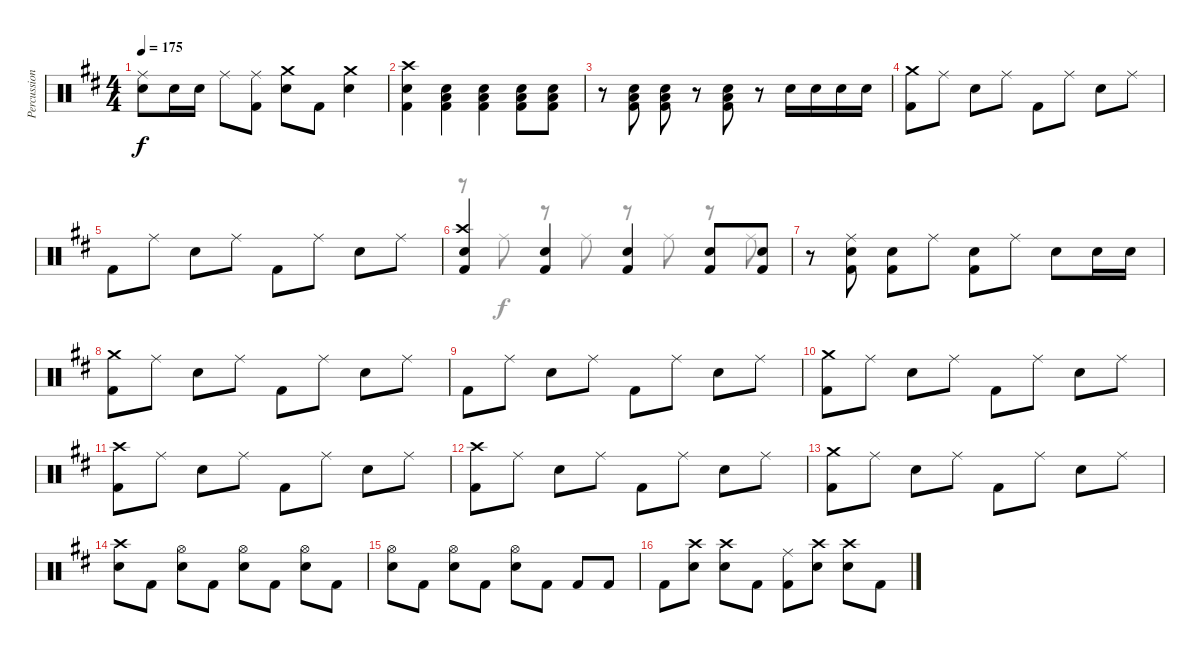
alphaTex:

\track ("Percussion" "Percussion") {instrument percussion}
\staff {score}
\articulation defaults
\voice
\ts (4 4)
\tempo 175
\clef neutral
\ks d
("Ride (middle)" "Electric Snare (hit)").8{dy f} "Electric Snare (hit)".16 "Electric Snare (hit)".16 "Ride (middle)".8 ("Ride (middle)" "Kick (hit) 2").8 ("Crash medium (hit)" "Electric Snare (hit)").8 "Kick (hit) 2".8 ("Crash medium (hit)" "Electric Snare (hit)").4 |
("Crash high (hit)" "Electric Snare (hit)" "Kick (hit) 2").4 ("Low Floor Tom (hit)" "Electric Snare (hit)" "Kick (hit) 2").4 ("Low Floor Tom (hit)" "Electric Snare (hit)" "Kick (hit) 2").4 ("Low Floor Tom (hit)" "Electric Snare (hit)" "Kick (hit) 2").8 ("Low Floor Tom (hit)" "Electric Snare (hit)" "Kick (hit) 2").8 |
r.8 ("Low Floor Tom (hit)" "Electric Snare (hit)" "Kick (hit) 2").8 ("Low Floor Tom (hit)" "Electric Snare (hit)" "Kick (hit) 2").8 r.8 ("Low Floor Tom (hit)" "Electric Snare (hit)" "Kick (hit) 2").8 r.8 "Electric Snare (hit)".16 "Electric Snare (hit)".16 "Electric Snare (hit)".16 "Electric Snare (hit)".16 |
("Crash medium (hit)" "Kick (hit) 2").8 "Ride (middle)".8 "Electric Snare (hit)".8 "Ride (middle)".8 "Kick (hit) 2".8 "Ride (middle)".8 "Electric Snare (hit)".8 "Ride (middle)".8 |
"Kick (hit) 2".8 "Ride (middle)".8 "Electric Snare (hit)".8 "Ride (middle)".8 "Kick (hit) 2".8 "Ride (middle)".8 "Electric Snare (hit)".8 "Ride (middle)".8 |
("Crash high (hit)" "Electric Snare (hit)" "Kick (hit) 2").4 ("Electric Snare (hit)" "Kick (hit) 2").4 ("Electric Snare (hit)" "Kick (hit) 2").4 ("Electric Snare (hit)" "Kick (hit) 2").8 ("Electric Snare (hit)" "Kick (hit) 2").8 |
r.8 ("Ride (middle)" "Electric Snare (hit)" "Kick (hit) 2").8 ("Electric Snare (hit)" "Kick (hit) 2").8 "Ride (middle)".8 ("Electric Snare (hit)" "Kick (hit) 2").8 "Ride (middle)".8 "Electric Snare (hit)".8 "Electric Snare (hit)".16 "Electric Snare (hit)".16 |
("Crash medium (hit)" "Kick (hit) 2").8 "Ride (middle)".8 "Electric Snare (hit)".8 "Ride (middle)".8 "Kick (hit) 2".8 "Ride (middle)".8 "Electric Snare (hit)".8 "Ride (middle)".8 |
"Kick (hit) 2".8 "Ride (middle)".8 "Electric Snare (hit)".8 "Ride (middle)".8 "Kick (hit) 2".8 "Ride (middle)".8 "Electric Snare (hit)".8 "Ride (middle)".8 |
("Crash medium (hit)" "Kick (hit) 2").8 "Ride (middle)".8 "Electric Snare (hit)".8 "Ride (middle)".8 "Kick (hit) 2".8 "Ride (middle)".8 "Electric Snare (hit)".8 "Ride (middle)".8 |
("Crash high (hit)" "Kick (hit) 2").8 "Ride (middle)".8 "Electric Snare (hit)".8 "Ride (middle)".8 "Kick (hit) 2".8 "Ride (middle)".8 "Electric Snare (hit)".8 "Ride (middle)".8 |
("Crash high (hit)" "Kick (hit) 2").8 "Ride (middle)".8 "Electric Snare (hit)".8 "Ride (middle)".8 "Kick (hit) 2".8 "Ride (middle)".8 "Electric Snare (hit)".8 "Ride (middle)".8 |
("Crash medium (hit)" "Kick (hit) 2").8 "Ride (middle)".8 "Electric Snare (hit)".8 "Ride (middle)".8 "Kick (hit) 2".8 "Ride (middle)".8 "Electric Snare (hit)".8 "Ride (middle)".8 |
("Crash high (hit)" "Electric Snare (hit)").8 "Kick (hit) 2".8 ("Hi-Hat (open)" "Electric Snare (hit)").8 "Kick (hit) 2".8 ("Hi-Hat (open)" "Electric Snare (hit)").8 "Kick (hit) 2".8 ("Hi-Hat (open)" "Electric Snare (hit)").8 "Kick (hit) 2".8 |
("Hi-Hat (open)" "Electric Snare (hit)").8 "Kick (hit) 2".8 ("Hi-Hat (open)" "Electric Snare (hit)").8 "Kick (hit) 2".8 ("Hi-Hat (open)" "Electric Snare (hit)").8 "Kick (hit) 2".8 "Kick (hit) 2".8 "Kick (hit) 2".8 |
"Kick (hit) 2".8 ("Crash high (hit)" "Electric Snare (hit)").8 ("Crash high (hit)" "Electric Snare (hit)").8 "Kick (hit) 2".8 ("Ride (middle)" "Kick (hit) 2").8 ("Crash high (hit)" "Electric Snare (hit)").8 ("Crash high (hit)" "Electric Snare (hit)").8 "Kick (hit) 2".8
\voice
\clef neutral
\ottava regular
\simile none
\ks d
|
|
|
|
|
r.8 "Ride (middle)".8 r.8 "Ride (middle)".8 r.8 "Ride (middle)".8 r.8 "Ride (middle)".8 |
|
|
|
|
|
|
|
|
|
